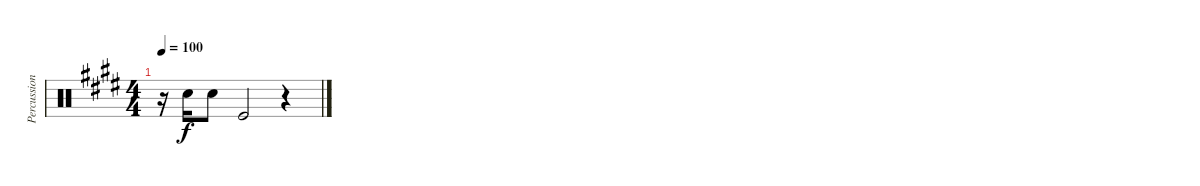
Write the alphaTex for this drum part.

\track ("Percussions" "Percussion") {instrument percussion}
\staff {score}
\articulation defaults
\ts (4 4)
\tempo 100
\clef neutral
\ks e
r.16{dy f} "Snare (hit) 2".16 "Snare (hit) 2".8 "Kick (hit)".2 r.4
